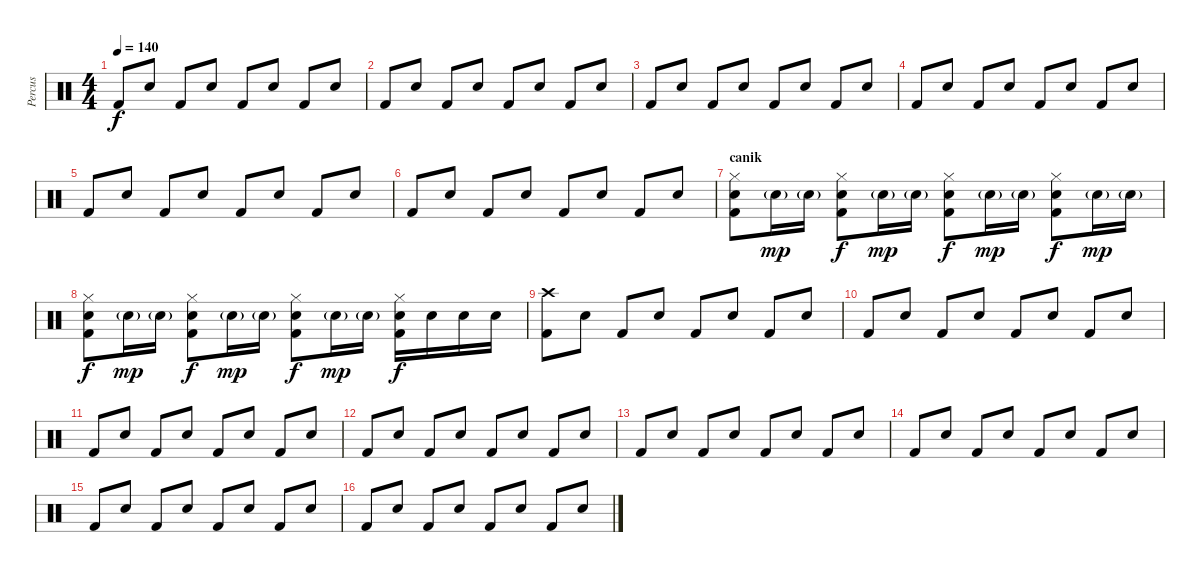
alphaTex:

\track ("Percus" "Percus") {instrument percussion}
\staff {score}
\articulation defaults
\ts (4 4)
\tempo 140
\clef neutral
\ks c "Kick (hit) 2".8{dy f} "Snare (hit) 2".8 "Kick (hit) 2".8 "Snare (hit) 2".8 "Kick (hit) 2".8 "Snare (hit) 2".8 "Kick (hit) 2".8 "Snare (hit) 2".8
|
"Kick (hit) 2".8 "Snare (hit) 2".8 "Kick (hit) 2".8 "Snare (hit) 2".8 "Kick (hit) 2".8 "Snare (hit) 2".8 "Kick (hit) 2".8 "Snare (hit) 2".8 |
"Kick (hit) 2".8 "Snare (hit) 2".8 "Kick (hit) 2".8 "Snare (hit) 2".8 "Kick (hit) 2".8 "Snare (hit) 2".8 "Kick (hit) 2".8 "Snare (hit) 2".8 |
"Kick (hit) 2".8 "Snare (hit) 2".8 "Kick (hit) 2".8 "Snare (hit) 2".8 "Kick (hit) 2".8 "Snare (hit) 2".8 "Kick (hit) 2".8 "Snare (hit) 2".8 |
"Kick (hit) 2".8 "Snare (hit) 2".8 "Kick (hit) 2".8 "Snare (hit) 2".8 "Kick (hit) 2".8 "Snare (hit) 2".8 "Kick (hit) 2".8 "Snare (hit) 2".8 |
"Kick (hit) 2".8 "Snare (hit) 2".8 "Kick (hit) 2".8 "Snare (hit) 2".8 "Kick (hit) 2".8 "Snare (hit) 2".8 "Kick (hit) 2".8 "Snare (hit) 2".8 |
\section ("" "canik")
("Hi-Hat (closed)" "Snare (hit) 2" "Kick (hit) 2").8 "Snare (hit) 2"{g}.16{dy mp} "Snare (hit) 2"{g}.16 ("Hi-Hat (closed)" "Snare (hit) 2" "Kick (hit) 2").8{dy f} "Snare (hit) 2"{g}.16{dy mp} "Snare (hit) 2"{g}.16 ("Hi-Hat (closed)" "Snare (hit) 2" "Kick (hit) 2").8{dy f} "Snare (hit) 2"{g}.16{dy mp} "Snare (hit) 2"{g}.16 ("Hi-Hat (closed)" "Snare (hit) 2" "Kick (hit) 2").8{dy f} "Snare (hit) 2"{g}.16{dy mp} "Snare (hit) 2"{g}.16 |
("Hi-Hat (closed)" "Snare (hit) 2" "Kick (hit) 2").8{dy f} "Snare (hit) 2"{g}.16{dy mp} "Snare (hit) 2"{g}.16 ("Hi-Hat (closed)" "Snare (hit) 2" "Kick (hit) 2").8{dy f} "Snare (hit) 2"{g}.16{dy mp} "Snare (hit) 2"{g}.16 ("Hi-Hat (closed)" "Snare (hit) 2" "Kick (hit) 2").8{dy f} "Snare (hit) 2"{g}.16{dy mp} "Snare (hit) 2"{g}.16 ("Hi-Hat (closed)" "Snare (hit) 2" "Kick (hit) 2").16{dy f} "Snare (hit) 2".16 "Snare (hit) 2".16 "Snare (hit) 2".16 |
\section ("" "")
("Crash high (hit)" "Kick (hit) 2").8 "Snare (hit) 2".8 "Kick (hit) 2".8 "Snare (hit) 2".8 "Kick (hit) 2".8 "Snare (hit) 2".8 "Kick (hit) 2".8 "Snare (hit) 2".8 |
"Kick (hit) 2".8 "Snare (hit) 2".8 "Kick (hit) 2".8 "Snare (hit) 2".8 "Kick (hit) 2".8 "Snare (hit) 2".8 "Kick (hit) 2".8 "Snare (hit) 2".8 |
"Kick (hit) 2".8 "Snare (hit) 2".8 "Kick (hit) 2".8 "Snare (hit) 2".8 "Kick (hit) 2".8 "Snare (hit) 2".8 "Kick (hit) 2".8 "Snare (hit) 2".8 |
"Kick (hit) 2".8 "Snare (hit) 2".8 "Kick (hit) 2".8 "Snare (hit) 2".8 "Kick (hit) 2".8 "Snare (hit) 2".8 "Kick (hit) 2".8 "Snare (hit) 2".8 |
"Kick (hit) 2".8 "Snare (hit) 2".8 "Kick (hit) 2".8 "Snare (hit) 2".8 "Kick (hit) 2".8 "Snare (hit) 2".8 "Kick (hit) 2".8 "Snare (hit) 2".8 |
"Kick (hit) 2".8 "Snare (hit) 2".8 "Kick (hit) 2".8 "Snare (hit) 2".8 "Kick (hit) 2".8 "Snare (hit) 2".8 "Kick (hit) 2".8 "Snare (hit) 2".8 |
\section ("" "")
"Kick (hit) 2".8 "Snare (hit) 2".8 "Kick (hit) 2".8 "Snare (hit) 2".8 "Kick (hit) 2".8 "Snare (hit) 2".8 "Kick (hit) 2".8 "Snare (hit) 2".8 |
"Kick (hit) 2".8 "Snare (hit) 2".8 "Kick (hit) 2".8 "Snare (hit) 2".8 "Kick (hit) 2".8 "Snare (hit) 2".8 "Kick (hit) 2".8 "Snare (hit) 2".8
